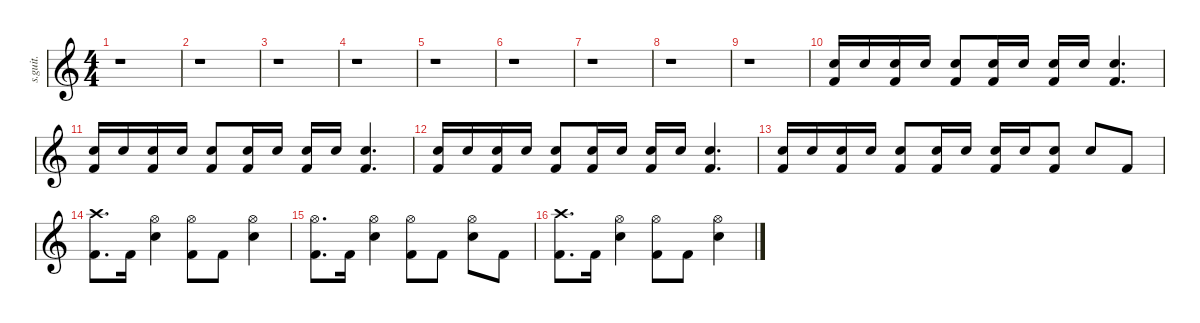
\defaultSystemsLayout 4
\hideDynamics
\bracketExtendMode nobrackets
\track ("" "s.guit.") {instrument percussion}
\staff {score}
\articulation defaults
\ts (4 4)
\beaming (8 2 2 2 2)
\tempo (150 hide)
\clef g2
\ks c
r.1{dy f} |
r.1 |
r.1 |
r.1 |
r.1 |
r.1 |
r.1 |
r.1 |
r.1 |
\tempo (180 hide)
("Kick (hit) 2" "Snare (hit) 2").16 "Snare (hit) 2".16 ("Kick (hit) 2" "Snare (hit) 2").16 "Snare (hit) 2".16 ("Kick (hit) 2" "Snare (hit) 2").8 ("Kick (hit) 2" "Snare (hit) 2").16 "Snare (hit) 2".16 ("Kick (hit) 2" "Snare (hit) 2").16 "Snare (hit) 2".16 ("Kick (hit) 2" "Snare (hit) 2").4{d} |
("Kick (hit) 2" "Snare (hit) 2").16 "Snare (hit) 2".16 ("Kick (hit) 2" "Snare (hit) 2").16 "Snare (hit) 2".16 ("Kick (hit) 2" "Snare (hit) 2").8 ("Kick (hit) 2" "Snare (hit) 2").16 "Snare (hit) 2".16 ("Kick (hit) 2" "Snare (hit) 2").16 "Snare (hit) 2".16 ("Kick (hit) 2" "Snare (hit) 2").4{d} |
("Kick (hit) 2" "Snare (hit) 2").16 "Snare (hit) 2".16 ("Kick (hit) 2" "Snare (hit) 2").16 "Snare (hit) 2".16 ("Kick (hit) 2" "Snare (hit) 2").8 ("Kick (hit) 2" "Snare (hit) 2").16 "Snare (hit) 2".16 ("Kick (hit) 2" "Snare (hit) 2").16 "Snare (hit) 2".16 ("Kick (hit) 2" "Snare (hit) 2").4{d} |
("Kick (hit) 2" "Snare (hit) 2").16 "Snare (hit) 2".16 ("Kick (hit) 2" "Snare (hit) 2").16 "Snare (hit) 2".16 ("Kick (hit) 2" "Snare (hit) 2").8 ("Kick (hit) 2" "Snare (hit) 2").16 "Snare (hit) 2".16 ("Kick (hit) 2" "Snare (hit) 2").16 "Snare (hit) 2".16 ("Kick (hit) 2" "Snare (hit) 2").8 "Snare (hit) 2".8 "Kick (hit) 2".8 |
("Kick (hit) 2" "Crash high (hit)").8{d} "Kick (hit) 2".16 ("Snare (hit) 2" "Hi-Hat (open)").4 ("Kick (hit) 2" "Hi-Hat (open)").8 "Kick (hit) 2".8 ("Snare (hit) 2" "Hi-Hat (open)").4 |
("Kick (hit) 2" "Hi-Hat (open)").8{d} "Kick (hit) 2".16 ("Snare (hit) 2" "Hi-Hat (open)").4 ("Kick (hit) 2" "Hi-Hat (open)").8 "Kick (hit) 2".8 ("Snare (hit) 2" "Hi-Hat (open)").8 "Kick (hit) 2".8 |
("Kick (hit) 2" "Crash high (hit)").8{d} "Kick (hit) 2".16 ("Snare (hit) 2" "Hi-Hat (open)").4 ("Kick (hit) 2" "Hi-Hat (open)").8 "Kick (hit) 2".8 ("Snare (hit) 2" "Hi-Hat (open)").4
